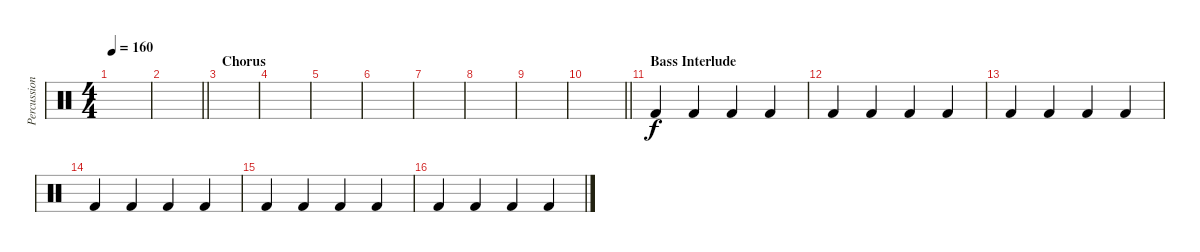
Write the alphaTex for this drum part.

\track ("Percussion" "Percussion") {instrument percussion}
\staff {score}
\articulation defaults
\ts (4 4)
\tempo 160
\clef neutral
\ks c
|
\barLineRight lightlight
|
\section ("" "Chorus")
|
|
|
|
|
|
|
\barLineRight lightlight
|
\section ("" "Bass Interlude")
"Kick (hit) 2".4 "Kick (hit) 2".4 "Kick (hit) 2".4 "Kick (hit) 2".4 |
"Kick (hit) 2".4 "Kick (hit) 2".4 "Kick (hit) 2".4 "Kick (hit) 2".4 |
"Kick (hit) 2".4 "Kick (hit) 2".4 "Kick (hit) 2".4 "Kick (hit) 2".4 |
"Kick (hit) 2".4 "Kick (hit) 2".4 "Kick (hit) 2".4 "Kick (hit) 2".4 |
"Kick (hit) 2".4 "Kick (hit) 2".4 "Kick (hit) 2".4 "Kick (hit) 2".4 |
"Kick (hit) 2".4 "Kick (hit) 2".4 "Kick (hit) 2".4 "Kick (hit) 2".4
